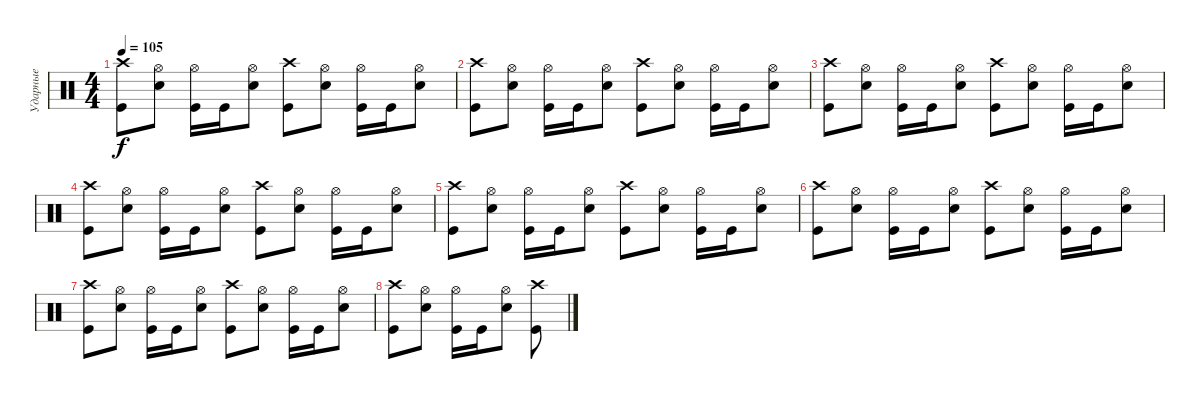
\track ("Ударные" "Ударные") {instrument percussion}
\staff {score}
\articulation defaults
\ts (4 4)
\tempo 105
\clef neutral
\ks c
("Kick (hit)" "Crash high (hit)").8{dy f} ("Snare (hit) 2" "Hi-Hat (open)").8 ("Kick (hit)" "Hi-Hat (open)").16 "Kick (hit)".16 ("Snare (hit) 2" "Hi-Hat (open)").8 ("Kick (hit)" "Crash high (hit)").8 ("Snare (hit) 2" "Hi-Hat (open)").8 ("Kick (hit)" "Hi-Hat (open)").16 "Kick (hit)".16 ("Snare (hit) 2" "Hi-Hat (open)").8 |
("Kick (hit)" "Crash high (hit)").8 ("Snare (hit) 2" "Hi-Hat (open)").8 ("Kick (hit)" "Hi-Hat (open)").16 "Kick (hit)".16 ("Snare (hit) 2" "Hi-Hat (open)").8 ("Kick (hit)" "Crash high (hit)").8 ("Snare (hit) 2" "Hi-Hat (open)").8 ("Kick (hit)" "Hi-Hat (open)").16 "Kick (hit)".16 ("Snare (hit) 2" "Hi-Hat (open)").8 |
("Kick (hit)" "Crash high (hit)").8 ("Snare (hit) 2" "Hi-Hat (open)").8 ("Kick (hit)" "Hi-Hat (open)").16 "Kick (hit)".16 ("Snare (hit) 2" "Hi-Hat (open)").8 ("Kick (hit)" "Crash high (hit)").8 ("Snare (hit) 2" "Hi-Hat (open)").8 ("Kick (hit)" "Hi-Hat (open)").16 "Kick (hit)".16 ("Snare (hit) 2" "Hi-Hat (open)").8 |
("Kick (hit)" "Crash high (hit)").8 ("Snare (hit) 2" "Hi-Hat (open)").8 ("Kick (hit)" "Hi-Hat (open)").16 "Kick (hit)".16 ("Snare (hit) 2" "Hi-Hat (open)").8 ("Kick (hit)" "Crash high (hit)").8 ("Snare (hit) 2" "Hi-Hat (open)").8 ("Kick (hit)" "Hi-Hat (open)").16 "Kick (hit)".16 ("Snare (hit) 2" "Hi-Hat (open)").8 |
("Kick (hit)" "Crash high (hit)").8 ("Snare (hit) 2" "Hi-Hat (open)").8 ("Kick (hit)" "Hi-Hat (open)").16 "Kick (hit)".16 ("Snare (hit) 2" "Hi-Hat (open)").8 ("Kick (hit)" "Crash high (hit)").8 ("Snare (hit) 2" "Hi-Hat (open)").8 ("Kick (hit)" "Hi-Hat (open)").16 "Kick (hit)".16 ("Snare (hit) 2" "Hi-Hat (open)").8 |
("Kick (hit)" "Crash high (hit)").8 ("Snare (hit) 2" "Hi-Hat (open)").8 ("Kick (hit)" "Hi-Hat (open)").16 "Kick (hit)".16 ("Snare (hit) 2" "Hi-Hat (open)").8 ("Kick (hit)" "Crash high (hit)").8 ("Snare (hit) 2" "Hi-Hat (open)").8 ("Kick (hit)" "Hi-Hat (open)").16 "Kick (hit)".16 ("Snare (hit) 2" "Hi-Hat (open)").8 |
("Kick (hit)" "Crash high (hit)").8 ("Snare (hit) 2" "Hi-Hat (open)").8 ("Kick (hit)" "Hi-Hat (open)").16 "Kick (hit)".16 ("Snare (hit) 2" "Hi-Hat (open)").8 ("Kick (hit)" "Crash high (hit)").8 ("Snare (hit) 2" "Hi-Hat (open)").8 ("Kick (hit)" "Hi-Hat (open)").16 "Kick (hit)".16 ("Snare (hit) 2" "Hi-Hat (open)").8 |
("Kick (hit)" "Crash high (hit)").8 ("Snare (hit) 2" "Hi-Hat (open)").8 ("Kick (hit)" "Hi-Hat (open)").16 "Kick (hit)".16 ("Snare (hit) 2" "Hi-Hat (open)").8 ("Kick (hit)" "Crash high (hit)").8
